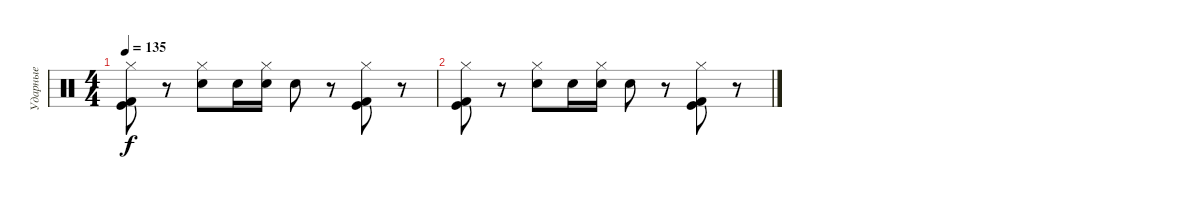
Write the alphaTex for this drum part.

\track ("Ударные" "Ударные") {instrument percussion}
\staff {score}
\articulation defaults
\ts (4 4)
\tempo 135
\clef neutral
\ks c
("Hi-Hat (closed)" "Kick (hit)" "Kick (hit) 2").8{dy f} r.8 ("Hi-Hat (closed)" "Electric Snare (hit)").8 "Electric Snare (hit)".16 ("Hi-Hat (closed)" "Electric Snare (hit)").16 "Electric Snare (hit)".8 r.8 ("Hi-Hat (closed)" "Kick (hit)" "Kick (hit) 2").8 r.8 |
("Hi-Hat (closed)" "Kick (hit)" "Kick (hit) 2").8 r.8 ("Hi-Hat (closed)" "Electric Snare (hit)").8 "Electric Snare (hit)".16 ("Hi-Hat (closed)" "Electric Snare (hit)").16 "Electric Snare (hit)".8 r.8 ("Hi-Hat (closed)" "Kick (hit)" "Kick (hit) 2").8 r.8
